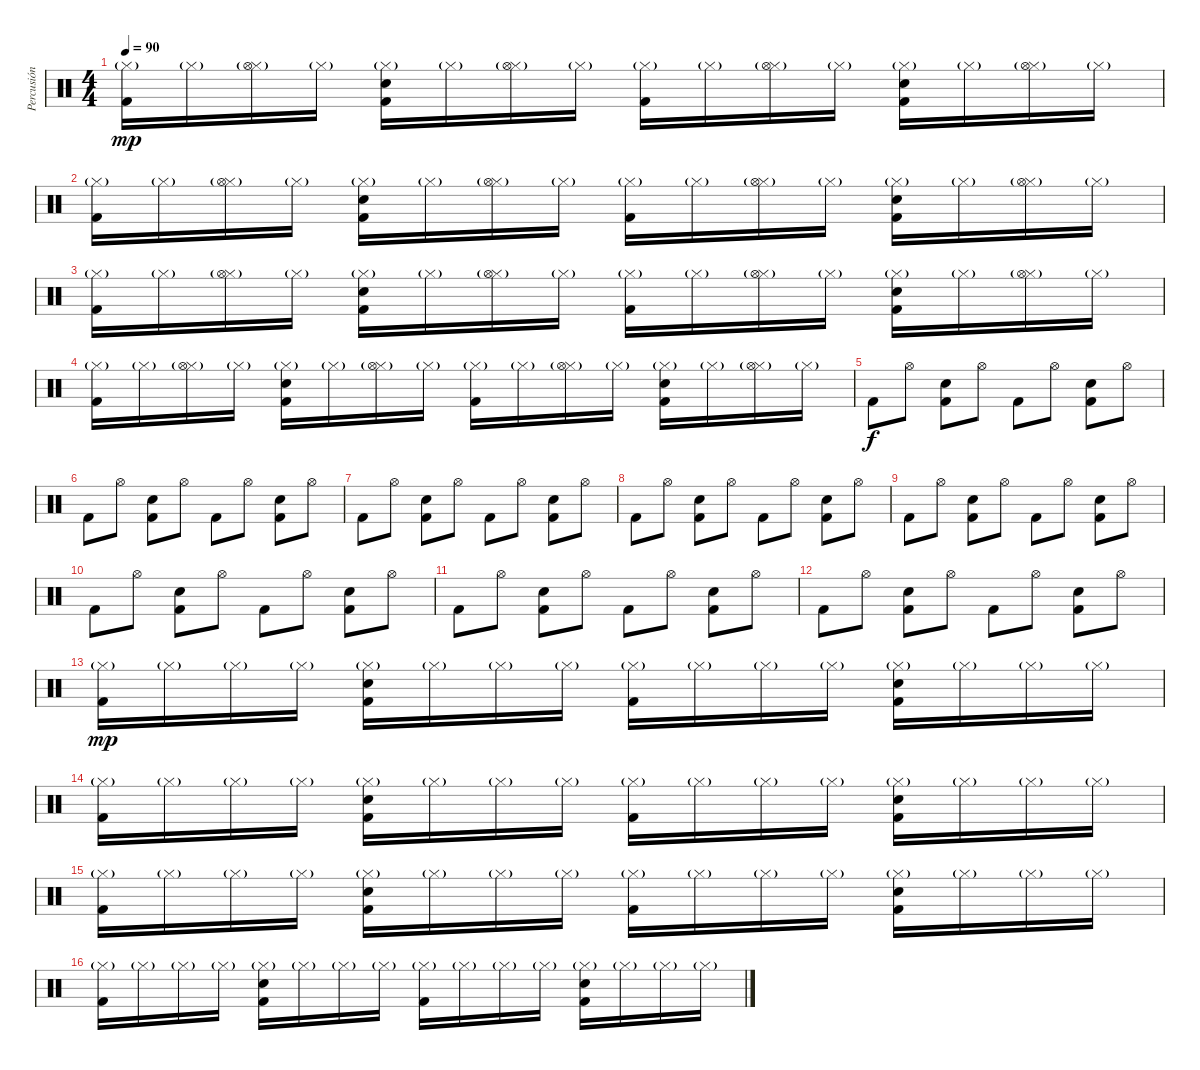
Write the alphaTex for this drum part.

\track ("Percusión" "Percusión") {instrument percussion}
\staff {score}
\articulation defaults
\ts (4 4)
\tempo 90
\clef neutral
\ks c
("Kick (hit) 2" "Hi-Hat (closed)"{g}).16{dy mp} "Hi-Hat (closed)"{g}.16 ("Hi-Hat (closed)"{g} "Hi-Hat (open)").16 "Hi-Hat (closed)"{g}.16 ("Kick (hit) 2" "Snare (hit) 2" "Hi-Hat (closed)"{g}).16 "Hi-Hat (closed)"{g}.16 ("Hi-Hat (closed)"{g} "Hi-Hat (open)").16 "Hi-Hat (closed)"{g}.16 ("Kick (hit) 2" "Hi-Hat (closed)"{g}).16 "Hi-Hat (closed)"{g}.16 ("Hi-Hat (closed)"{g} "Hi-Hat (open)").16 "Hi-Hat (closed)"{g}.16 ("Kick (hit) 2" "Snare (hit) 2" "Hi-Hat (closed)"{g}).16 "Hi-Hat (closed)"{g}.16 ("Hi-Hat (closed)"{g} "Hi-Hat (open)").16 "Hi-Hat (closed)"{g}.16 |
("Kick (hit) 2" "Hi-Hat (closed)"{g}).16 "Hi-Hat (closed)"{g}.16 ("Hi-Hat (closed)"{g} "Hi-Hat (open)").16 "Hi-Hat (closed)"{g}.16 ("Kick (hit) 2" "Snare (hit) 2" "Hi-Hat (closed)"{g}).16 "Hi-Hat (closed)"{g}.16 ("Hi-Hat (closed)"{g} "Hi-Hat (open)").16 "Hi-Hat (closed)"{g}.16 ("Kick (hit) 2" "Hi-Hat (closed)"{g}).16 "Hi-Hat (closed)"{g}.16 ("Hi-Hat (closed)"{g} "Hi-Hat (open)").16 "Hi-Hat (closed)"{g}.16 ("Kick (hit) 2" "Snare (hit) 2" "Hi-Hat (closed)"{g}).16 "Hi-Hat (closed)"{g}.16 ("Hi-Hat (closed)"{g} "Hi-Hat (open)").16 "Hi-Hat (closed)"{g}.16 |
("Kick (hit) 2" "Hi-Hat (closed)"{g}).16 "Hi-Hat (closed)"{g}.16 ("Hi-Hat (closed)"{g} "Hi-Hat (open)").16 "Hi-Hat (closed)"{g}.16 ("Kick (hit) 2" "Snare (hit) 2" "Hi-Hat (closed)"{g}).16 "Hi-Hat (closed)"{g}.16 ("Hi-Hat (closed)"{g} "Hi-Hat (open)").16 "Hi-Hat (closed)"{g}.16 ("Kick (hit) 2" "Hi-Hat (closed)"{g}).16 "Hi-Hat (closed)"{g}.16 ("Hi-Hat (closed)"{g} "Hi-Hat (open)").16 "Hi-Hat (closed)"{g}.16 ("Kick (hit) 2" "Snare (hit) 2" "Hi-Hat (closed)"{g}).16 "Hi-Hat (closed)"{g}.16 ("Hi-Hat (closed)"{g} "Hi-Hat (open)").16 "Hi-Hat (closed)"{g}.16 |
("Kick (hit) 2" "Hi-Hat (closed)"{g}).16 "Hi-Hat (closed)"{g}.16 ("Hi-Hat (closed)"{g} "Hi-Hat (open)").16 "Hi-Hat (closed)"{g}.16 ("Kick (hit) 2" "Snare (hit) 2" "Hi-Hat (closed)"{g}).16 "Hi-Hat (closed)"{g}.16 ("Hi-Hat (closed)"{g} "Hi-Hat (open)").16 "Hi-Hat (closed)"{g}.16 ("Kick (hit) 2" "Hi-Hat (closed)"{g}).16 "Hi-Hat (closed)"{g}.16 ("Hi-Hat (closed)"{g} "Hi-Hat (open)").16 "Hi-Hat (closed)"{g}.16 ("Kick (hit) 2" "Snare (hit) 2" "Hi-Hat (closed)"{g}).16 "Hi-Hat (closed)"{g}.16 ("Hi-Hat (closed)"{g} "Hi-Hat (open)").16 "Hi-Hat (closed)"{g}.16 |
"Kick (hit) 2".8{dy f} "Hi-Hat (open)".8 ("Kick (hit) 2" "Snare (hit) 2").8 "Hi-Hat (open)".8 "Kick (hit) 2".8 "Hi-Hat (open)".8 ("Kick (hit) 2" "Snare (hit) 2").8 "Hi-Hat (open)".8 |
"Kick (hit) 2".8 "Hi-Hat (open)".8 ("Kick (hit) 2" "Snare (hit) 2").8 "Hi-Hat (open)".8 "Kick (hit) 2".8 "Hi-Hat (open)".8 ("Kick (hit) 2" "Snare (hit) 2").8 "Hi-Hat (open)".8 |
"Kick (hit) 2".8 "Hi-Hat (open)".8 ("Kick (hit) 2" "Snare (hit) 2").8 "Hi-Hat (open)".8 "Kick (hit) 2".8 "Hi-Hat (open)".8 ("Kick (hit) 2" "Snare (hit) 2").8 "Hi-Hat (open)".8 |
"Kick (hit) 2".8 "Hi-Hat (open)".8 ("Kick (hit) 2" "Snare (hit) 2").8 "Hi-Hat (open)".8 "Kick (hit) 2".8 "Hi-Hat (open)".8 ("Kick (hit) 2" "Snare (hit) 2").8 "Hi-Hat (open)".8 |
"Kick (hit) 2".8 "Hi-Hat (open)".8 ("Kick (hit) 2" "Snare (hit) 2").8 "Hi-Hat (open)".8 "Kick (hit) 2".8 "Hi-Hat (open)".8 ("Kick (hit) 2" "Snare (hit) 2").8 "Hi-Hat (open)".8 |
"Kick (hit) 2".8 "Hi-Hat (open)".8 ("Kick (hit) 2" "Snare (hit) 2").8 "Hi-Hat (open)".8 "Kick (hit) 2".8 "Hi-Hat (open)".8 ("Kick (hit) 2" "Snare (hit) 2").8 "Hi-Hat (open)".8 |
"Kick (hit) 2".8 "Hi-Hat (open)".8 ("Kick (hit) 2" "Snare (hit) 2").8 "Hi-Hat (open)".8 "Kick (hit) 2".8 "Hi-Hat (open)".8 ("Kick (hit) 2" "Snare (hit) 2").8 "Hi-Hat (open)".8 |
"Kick (hit) 2".8 "Hi-Hat (open)".8 ("Kick (hit) 2" "Snare (hit) 2").8 "Hi-Hat (open)".8 "Kick (hit) 2".8 "Hi-Hat (open)".8 ("Kick (hit) 2" "Snare (hit) 2").8 "Hi-Hat (open)".8 |
("Kick (hit) 2" "Hi-Hat (closed)"{g}).16{dy mp} "Hi-Hat (closed)"{g}.16 "Hi-Hat (closed)"{g}.16 "Hi-Hat (closed)"{g}.16 ("Kick (hit) 2" "Snare (hit) 2" "Hi-Hat (closed)"{g}).16 "Hi-Hat (closed)"{g}.16 "Hi-Hat (closed)"{g}.16 "Hi-Hat (closed)"{g}.16 ("Kick (hit) 2" "Hi-Hat (closed)"{g}).16 "Hi-Hat (closed)"{g}.16 "Hi-Hat (closed)"{g}.16 "Hi-Hat (closed)"{g}.16 ("Kick (hit) 2" "Snare (hit) 2" "Hi-Hat (closed)"{g}).16 "Hi-Hat (closed)"{g}.16 "Hi-Hat (closed)"{g}.16 "Hi-Hat (closed)"{g}.16 |
("Kick (hit) 2" "Hi-Hat (closed)"{g}).16 "Hi-Hat (closed)"{g}.16 "Hi-Hat (closed)"{g}.16 "Hi-Hat (closed)"{g}.16 ("Kick (hit) 2" "Snare (hit) 2" "Hi-Hat (closed)"{g}).16 "Hi-Hat (closed)"{g}.16 "Hi-Hat (closed)"{g}.16 "Hi-Hat (closed)"{g}.16 ("Kick (hit) 2" "Hi-Hat (closed)"{g}).16 "Hi-Hat (closed)"{g}.16 "Hi-Hat (closed)"{g}.16 "Hi-Hat (closed)"{g}.16 ("Kick (hit) 2" "Snare (hit) 2" "Hi-Hat (closed)"{g}).16 "Hi-Hat (closed)"{g}.16 "Hi-Hat (closed)"{g}.16 "Hi-Hat (closed)"{g}.16 |
("Kick (hit) 2" "Hi-Hat (closed)"{g}).16 "Hi-Hat (closed)"{g}.16 "Hi-Hat (closed)"{g}.16 "Hi-Hat (closed)"{g}.16 ("Kick (hit) 2" "Snare (hit) 2" "Hi-Hat (closed)"{g}).16 "Hi-Hat (closed)"{g}.16 "Hi-Hat (closed)"{g}.16 "Hi-Hat (closed)"{g}.16 ("Kick (hit) 2" "Hi-Hat (closed)"{g}).16 "Hi-Hat (closed)"{g}.16 "Hi-Hat (closed)"{g}.16 "Hi-Hat (closed)"{g}.16 ("Kick (hit) 2" "Snare (hit) 2" "Hi-Hat (closed)"{g}).16 "Hi-Hat (closed)"{g}.16 "Hi-Hat (closed)"{g}.16 "Hi-Hat (closed)"{g}.16 |
("Kick (hit) 2" "Hi-Hat (closed)"{g}).16 "Hi-Hat (closed)"{g}.16 "Hi-Hat (closed)"{g}.16 "Hi-Hat (closed)"{g}.16 ("Kick (hit) 2" "Snare (hit) 2" "Hi-Hat (closed)"{g}).16 "Hi-Hat (closed)"{g}.16 "Hi-Hat (closed)"{g}.16 "Hi-Hat (closed)"{g}.16 ("Kick (hit) 2" "Hi-Hat (closed)"{g}).16 "Hi-Hat (closed)"{g}.16 "Hi-Hat (closed)"{g}.16 "Hi-Hat (closed)"{g}.16 ("Kick (hit) 2" "Snare (hit) 2" "Hi-Hat (closed)"{g}).16 "Hi-Hat (closed)"{g}.16 "Hi-Hat (closed)"{g}.16 "Hi-Hat (closed)"{g}.16
